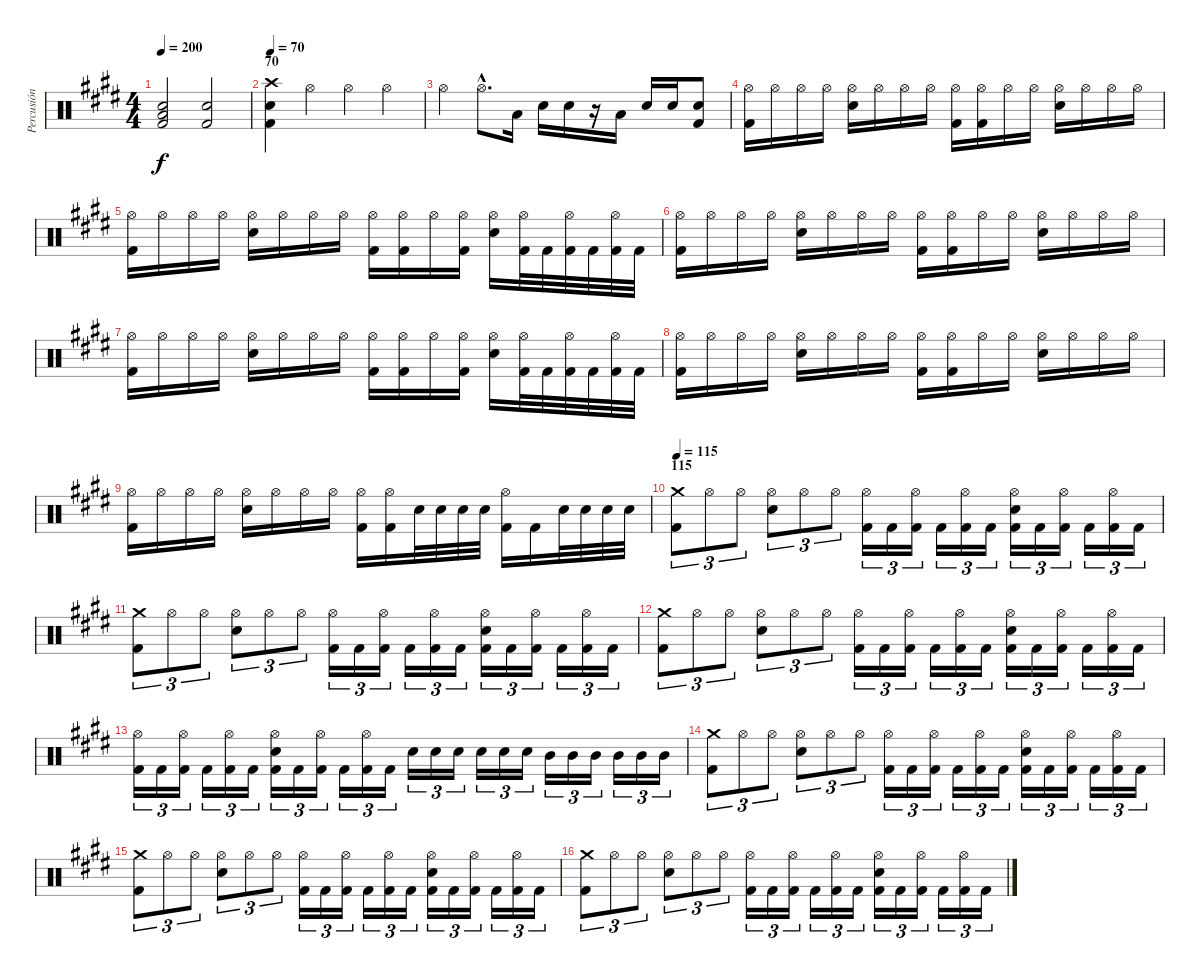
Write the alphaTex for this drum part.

\track ("Percusión" "Percusión") {instrument percussion}
\staff {score}
\articulation defaults
\ts (4 4)
\tempo 200
\clef neutral
\ks e
("Electric Snare (hit)" "Low Tom (hit)" "Kick (hit) 2").2{dy f} ("Snare (hit) 2" "Kick (hit) 2").2 |
\section ("" "70")
\tempo 70
("Crash high (hit)" "Snare (hit) 2" "Kick (hit) 2").4 "Hi-Hat (open)".4 "Hi-Hat (open)".4 "Hi-Hat (open)".4 |
"Hi-Hat (open)".4 "Hi-Hat (open)"{hac}.8{d} "Low Tom (hit)".16 "Snare (hit) 2".16 "Snare (hit) 2".16 r.16 "Low Tom (hit)".16 "Snare (hit) 2".16 "Snare (hit) 2".16 ("Electric Snare (hit)" "Kick (hit) 2").8 |
("Hi-Hat (open)" "Kick (hit) 2").16 "Hi-Hat (open)".16 "Hi-Hat (open)".16 "Hi-Hat (open)".16 ("Hi-Hat (open)" "Electric Snare (hit)").16 "Hi-Hat (open)".16 "Hi-Hat (open)".16 "Hi-Hat (open)".16 ("Hi-Hat (open)" "Kick (hit) 2").16 ("Hi-Hat (open)" "Kick (hit) 2").16 "Hi-Hat (open)".16 "Hi-Hat (open)".16 ("Hi-Hat (open)" "Electric Snare (hit)").16 "Hi-Hat (open)".16 "Hi-Hat (open)".16 "Hi-Hat (open)".16 |
("Hi-Hat (open)" "Kick (hit) 2").16 "Hi-Hat (open)".16 "Hi-Hat (open)".16 "Hi-Hat (open)".16 ("Hi-Hat (open)" "Electric Snare (hit)").16 "Hi-Hat (open)".16 "Hi-Hat (open)".16 "Hi-Hat (open)".16 ("Hi-Hat (open)" "Kick (hit) 2").16 ("Hi-Hat (open)" "Kick (hit) 2").16 "Hi-Hat (open)".16 ("Hi-Hat (open)" "Kick (hit) 2").16 ("Hi-Hat (open)" "Electric Snare (hit)").16 ("Hi-Hat (open)" "Kick (hit) 2").32 "Kick (hit) 2".32 ("Hi-Hat (open)" "Kick (hit) 2").32 "Kick (hit) 2".32 ("Hi-Hat (open)" "Kick (hit) 2").32 "Kick (hit) 2".32 |
("Hi-Hat (open)" "Kick (hit) 2").16 "Hi-Hat (open)".16 "Hi-Hat (open)".16 "Hi-Hat (open)".16 ("Hi-Hat (open)" "Electric Snare (hit)").16 "Hi-Hat (open)".16 "Hi-Hat (open)".16 "Hi-Hat (open)".16 ("Hi-Hat (open)" "Kick (hit) 2").16 ("Hi-Hat (open)" "Kick (hit) 2").16 "Hi-Hat (open)".16 "Hi-Hat (open)".16 ("Hi-Hat (open)" "Electric Snare (hit)").16 "Hi-Hat (open)".16 "Hi-Hat (open)".16 "Hi-Hat (open)".16 |
("Hi-Hat (open)" "Kick (hit) 2").16 "Hi-Hat (open)".16 "Hi-Hat (open)".16 "Hi-Hat (open)".16 ("Hi-Hat (open)" "Electric Snare (hit)").16 "Hi-Hat (open)".16 "Hi-Hat (open)".16 "Hi-Hat (open)".16 ("Hi-Hat (open)" "Kick (hit) 2").16 ("Hi-Hat (open)" "Kick (hit) 2").16 "Hi-Hat (open)".16 ("Hi-Hat (open)" "Kick (hit) 2").16 ("Hi-Hat (open)" "Electric Snare (hit)").16 ("Hi-Hat (open)" "Kick (hit) 2").32 "Kick (hit) 2".32 ("Hi-Hat (open)" "Kick (hit) 2").32 "Kick (hit) 2".32 ("Hi-Hat (open)" "Kick (hit) 2").32 "Kick (hit) 2".32 |
("Hi-Hat (open)" "Kick (hit) 2").16 "Hi-Hat (open)".16 "Hi-Hat (open)".16 "Hi-Hat (open)".16 ("Hi-Hat (open)" "Electric Snare (hit)").16 "Hi-Hat (open)".16 "Hi-Hat (open)".16 "Hi-Hat (open)".16 ("Hi-Hat (open)" "Kick (hit) 2").16 ("Hi-Hat (open)" "Kick (hit) 2").16 "Hi-Hat (open)".16 "Hi-Hat (open)".16 ("Hi-Hat (open)" "Electric Snare (hit)").16 "Hi-Hat (open)".16 "Hi-Hat (open)".16 "Hi-Hat (open)".16 |
("Hi-Hat (open)" "Kick (hit) 2").16 "Hi-Hat (open)".16 "Hi-Hat (open)".16 "Hi-Hat (open)".16 ("Hi-Hat (open)" "Electric Snare (hit)").16 "Hi-Hat (open)".16 "Hi-Hat (open)".16 "Hi-Hat (open)".16 ("Hi-Hat (open)" "Kick (hit) 2").16 ("Hi-Hat (open)" "Kick (hit) 2").16 "Electric Snare (hit)".32 "Electric Snare (hit)".32 "Electric Snare (hit)".32 "Electric Snare (hit)".32 ("Hi-Hat (open)" "Kick (hit) 2").16 "Kick (hit) 2".16 "Electric Snare (hit)".32 "Electric Snare (hit)".32 "Electric Snare (hit)".32 "Electric Snare (hit)".32 |
\section ("" "115")
\tempo 115
("Crash medium (hit)" "Kick (hit) 2").8{tu (3 2)} "Hi-Hat (open)".8{tu (3 2)} "Hi-Hat (open)".8{tu (3 2)} ("Hi-Hat (open)" "Electric Snare (hit)").8{tu (3 2)} "Hi-Hat (open)".8{tu (3 2)} "Hi-Hat (open)".8{tu (3 2)} ("Hi-Hat (open)" "Kick (hit) 2").16{tu (3 2)} "Kick (hit) 2".16{tu (3 2)} ("Hi-Hat (open)" "Kick (hit) 2").16{tu (3 2)} "Kick (hit) 2".16{tu (3 2)} ("Hi-Hat (open)" "Kick (hit) 2").16{tu (3 2)} "Kick (hit) 2".16{tu (3 2)} ("Hi-Hat (open)" "Electric Snare (hit)" "Kick (hit) 2").16{tu (3 2)} "Kick (hit) 2".16{tu (3 2)} ("Hi-Hat (open)" "Kick (hit) 2").16{tu (3 2)} "Kick (hit) 2".16{tu (3 2)} ("Hi-Hat (open)" "Kick (hit) 2").16{tu (3 2)} "Kick (hit) 2".16{tu (3 2)} |
("Crash medium (hit)" "Kick (hit) 2").8{tu (3 2)} "Hi-Hat (open)".8{tu (3 2)} "Hi-Hat (open)".8{tu (3 2)} ("Hi-Hat (open)" "Electric Snare (hit)").8{tu (3 2)} "Hi-Hat (open)".8{tu (3 2)} "Hi-Hat (open)".8{tu (3 2)} ("Hi-Hat (open)" "Kick (hit) 2").16{tu (3 2)} "Kick (hit) 2".16{tu (3 2)} ("Hi-Hat (open)" "Kick (hit) 2").16{tu (3 2)} "Kick (hit) 2".16{tu (3 2)} ("Hi-Hat (open)" "Kick (hit) 2").16{tu (3 2)} "Kick (hit) 2".16{tu (3 2)} ("Hi-Hat (open)" "Electric Snare (hit)" "Kick (hit) 2").16{tu (3 2)} "Kick (hit) 2".16{tu (3 2)} ("Hi-Hat (open)" "Kick (hit) 2").16{tu (3 2)} "Kick (hit) 2".16{tu (3 2)} ("Hi-Hat (open)" "Kick (hit) 2").16{tu (3 2)} "Kick (hit) 2".16{tu (3 2)} |
("Crash medium (hit)" "Kick (hit) 2").8{tu (3 2)} "Hi-Hat (open)".8{tu (3 2)} "Hi-Hat (open)".8{tu (3 2)} ("Hi-Hat (open)" "Electric Snare (hit)").8{tu (3 2)} "Hi-Hat (open)".8{tu (3 2)} "Hi-Hat (open)".8{tu (3 2)} ("Hi-Hat (open)" "Kick (hit) 2").16{tu (3 2)} "Kick (hit) 2".16{tu (3 2)} ("Hi-Hat (open)" "Kick (hit) 2").16{tu (3 2)} "Kick (hit) 2".16{tu (3 2)} ("Hi-Hat (open)" "Kick (hit) 2").16{tu (3 2)} "Kick (hit) 2".16{tu (3 2)} ("Hi-Hat (open)" "Electric Snare (hit)" "Kick (hit) 2").16{tu (3 2)} "Kick (hit) 2".16{tu (3 2)} ("Hi-Hat (open)" "Kick (hit) 2").16{tu (3 2)} "Kick (hit) 2".16{tu (3 2)} ("Hi-Hat (open)" "Kick (hit) 2").16{tu (3 2)} "Kick (hit) 2".16{tu (3 2)} |
("Hi-Hat (open)" "Kick (hit) 2").16{tu (3 2)} "Kick (hit) 2".16{tu (3 2)} ("Hi-Hat (open)" "Kick (hit) 2").16{tu (3 2)} "Kick (hit) 2".16{tu (3 2)} ("Hi-Hat (open)" "Kick (hit) 2").16{tu (3 2)} "Kick (hit) 2".16{tu (3 2)} ("Hi-Hat (open)" "Electric Snare (hit)" "Kick (hit) 2").16{tu (3 2)} "Kick (hit) 2".16{tu (3 2)} ("Hi-Hat (open)" "Kick (hit) 2").16{tu (3 2)} "Kick (hit) 2".16{tu (3 2)} ("Hi-Hat (open)" "Kick (hit) 2").16{tu (3 2)} "Kick (hit) 2".16{tu (3 2)} "Electric Snare (hit)".16{tu (3 2)} "Electric Snare (hit)".16{tu (3 2)} "Electric Snare (hit)".16{tu (3 2)} "Electric Snare (hit)".16{tu (3 2)} "Electric Snare (hit)".16{tu (3 2)} "Electric Snare (hit)".16{tu (3 2)} "Mid Tom (hit)".16{tu (3 2)} "Mid Tom (hit)".16{tu (3 2)} "Mid Tom (hit)".16{tu (3 2)} "Mid Tom (hit)".16{tu (3 2)} "Mid Tom (hit)".16{tu (3 2)} "Mid Tom (hit)".16{tu (3 2)} |
("Crash medium (hit)" "Kick (hit) 2").8{tu (3 2)} "Hi-Hat (open)".8{tu (3 2)} "Hi-Hat (open)".8{tu (3 2)} ("Hi-Hat (open)" "Electric Snare (hit)").8{tu (3 2)} "Hi-Hat (open)".8{tu (3 2)} "Hi-Hat (open)".8{tu (3 2)} ("Hi-Hat (open)" "Kick (hit) 2").16{tu (3 2)} "Kick (hit) 2".16{tu (3 2)} ("Hi-Hat (open)" "Kick (hit) 2").16{tu (3 2)} "Kick (hit) 2".16{tu (3 2)} ("Hi-Hat (open)" "Kick (hit) 2").16{tu (3 2)} "Kick (hit) 2".16{tu (3 2)} ("Hi-Hat (open)" "Electric Snare (hit)" "Kick (hit) 2").16{tu (3 2)} "Kick (hit) 2".16{tu (3 2)} ("Hi-Hat (open)" "Kick (hit) 2").16{tu (3 2)} "Kick (hit) 2".16{tu (3 2)} ("Hi-Hat (open)" "Kick (hit) 2").16{tu (3 2)} "Kick (hit) 2".16{tu (3 2)} |
("Crash medium (hit)" "Kick (hit) 2").8{tu (3 2)} "Hi-Hat (open)".8{tu (3 2)} "Hi-Hat (open)".8{tu (3 2)} ("Hi-Hat (open)" "Electric Snare (hit)").8{tu (3 2)} "Hi-Hat (open)".8{tu (3 2)} "Hi-Hat (open)".8{tu (3 2)} ("Hi-Hat (open)" "Kick (hit) 2").16{tu (3 2)} "Kick (hit) 2".16{tu (3 2)} ("Hi-Hat (open)" "Kick (hit) 2").16{tu (3 2)} "Kick (hit) 2".16{tu (3 2)} ("Hi-Hat (open)" "Kick (hit) 2").16{tu (3 2)} "Kick (hit) 2".16{tu (3 2)} ("Hi-Hat (open)" "Electric Snare (hit)" "Kick (hit) 2").16{tu (3 2)} "Kick (hit) 2".16{tu (3 2)} ("Hi-Hat (open)" "Kick (hit) 2").16{tu (3 2)} "Kick (hit) 2".16{tu (3 2)} ("Hi-Hat (open)" "Kick (hit) 2").16{tu (3 2)} "Kick (hit) 2".16{tu (3 2)} |
("Crash medium (hit)" "Kick (hit) 2").8{tu (3 2)} "Hi-Hat (open)".8{tu (3 2)} "Hi-Hat (open)".8{tu (3 2)} ("Hi-Hat (open)" "Electric Snare (hit)").8{tu (3 2)} "Hi-Hat (open)".8{tu (3 2)} "Hi-Hat (open)".8{tu (3 2)} ("Hi-Hat (open)" "Kick (hit) 2").16{tu (3 2)} "Kick (hit) 2".16{tu (3 2)} ("Hi-Hat (open)" "Kick (hit) 2").16{tu (3 2)} "Kick (hit) 2".16{tu (3 2)} ("Hi-Hat (open)" "Kick (hit) 2").16{tu (3 2)} "Kick (hit) 2".16{tu (3 2)} ("Hi-Hat (open)" "Electric Snare (hit)" "Kick (hit) 2").16{tu (3 2)} "Kick (hit) 2".16{tu (3 2)} ("Hi-Hat (open)" "Kick (hit) 2").16{tu (3 2)} "Kick (hit) 2".16{tu (3 2)} ("Hi-Hat (open)" "Kick (hit) 2").16{tu (3 2)} "Kick (hit) 2".16{tu (3 2)}
